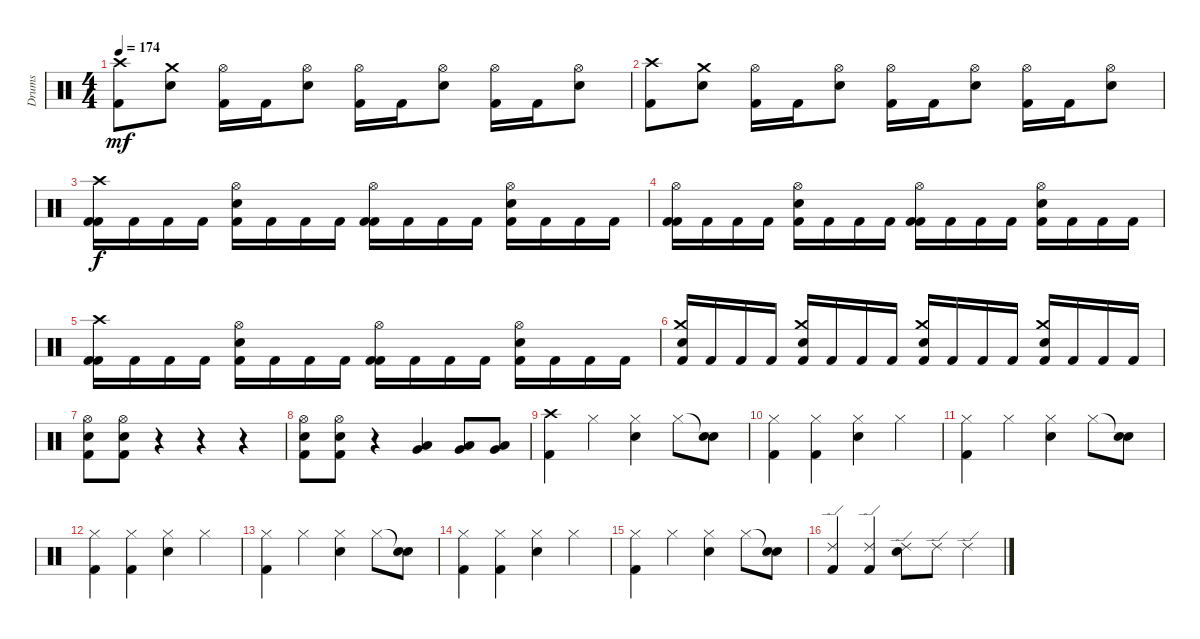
\track ("Drums" "Drums") {instrument percussion}
\staff {score}
\articulation defaults
\ts (4 4)
\tempo 174
\clef neutral
\ks c
("Crash high (hit)" "Kick (hit) 2").8{dy mf} ("Crash medium (hit)" "Electric Snare (hit)").8 ("Hi-Hat (open)" "Kick (hit) 2").16 "Kick (hit) 2".16 ("Hi-Hat (open)" "Electric Snare (hit)").8 ("Hi-Hat (open)" "Kick (hit) 2").16 "Kick (hit) 2".16 ("Hi-Hat (open)" "Electric Snare (hit)").8 ("Hi-Hat (open)" "Kick (hit) 2").16 "Kick (hit) 2".16 ("Hi-Hat (open)" "Electric Snare (hit)").8 |
("Crash high (hit)" "Kick (hit) 2").8 ("Crash medium (hit)" "Electric Snare (hit)").8 ("Hi-Hat (open)" "Kick (hit) 2").16 "Kick (hit) 2".16 ("Hi-Hat (open)" "Electric Snare (hit)").8 ("Hi-Hat (open)" "Kick (hit) 2").16 "Kick (hit) 2".16 ("Hi-Hat (open)" "Electric Snare (hit)").8 ("Hi-Hat (open)" "Kick (hit) 2").16 "Kick (hit) 2".16 ("Hi-Hat (open)" "Electric Snare (hit)").8 |
("Crash high (hit)" "Kick (hit) 2" "Kick (hit) 2").16{dy f} "Kick (hit) 2".16 "Kick (hit) 2".16 "Kick (hit) 2".16 ("Hi-Hat (open)" "Electric Snare (hit)" "Kick (hit) 2").16 "Kick (hit) 2".16 "Kick (hit) 2".16 "Kick (hit) 2".16 ("Hi-Hat (open)" "Kick (hit) 2" "Kick (hit) 2").16 "Kick (hit) 2".16 "Kick (hit) 2".16 "Kick (hit) 2".16 ("Hi-Hat (open)" "Electric Snare (hit)" "Kick (hit) 2").16 "Kick (hit) 2".16 "Kick (hit) 2".16 "Kick (hit) 2".16 |
("Hi-Hat (open)" "Kick (hit) 2" "Kick (hit) 2").16 "Kick (hit) 2".16 "Kick (hit) 2".16 "Kick (hit) 2".16 ("Hi-Hat (open)" "Electric Snare (hit)" "Kick (hit) 2").16 "Kick (hit) 2".16 "Kick (hit) 2".16 "Kick (hit) 2".16 ("Hi-Hat (open)" "Kick (hit) 2" "Kick (hit) 2").16 "Kick (hit) 2".16 "Kick (hit) 2".16 "Kick (hit) 2".16 ("Hi-Hat (open)" "Electric Snare (hit)" "Kick (hit) 2").16 "Kick (hit) 2".16 "Kick (hit) 2".16 "Kick (hit) 2".16 |
("Crash high (hit)" "Kick (hit) 2" "Kick (hit) 2").16 "Kick (hit) 2".16 "Kick (hit) 2".16 "Kick (hit) 2".16 ("Hi-Hat (open)" "Electric Snare (hit)" "Kick (hit) 2").16 "Kick (hit) 2".16 "Kick (hit) 2".16 "Kick (hit) 2".16 ("Hi-Hat (open)" "Kick (hit) 2" "Kick (hit) 2").16 "Kick (hit) 2".16 "Kick (hit) 2".16 "Kick (hit) 2".16 ("Hi-Hat (open)" "Electric Snare (hit)" "Kick (hit) 2").16 "Kick (hit) 2".16 "Kick (hit) 2".16 "Kick (hit) 2".16 |
("Crash medium (hit)" "Electric Snare (hit)" "Kick (hit) 2").16 "Kick (hit) 2".16 "Kick (hit) 2".16 "Kick (hit) 2".16 ("Crash medium (hit)" "Electric Snare (hit)" "Kick (hit) 2").16 "Kick (hit) 2".16 "Kick (hit) 2".16 "Kick (hit) 2".16 ("Crash medium (hit)" "Electric Snare (hit)" "Kick (hit) 2").16 "Kick (hit) 2".16 "Kick (hit) 2".16 "Kick (hit) 2".16 ("Crash medium (hit)" "Electric Snare (hit)" "Kick (hit) 2").16 "Kick (hit) 2".16 "Kick (hit) 2".16 "Kick (hit) 2".16 |
("Hi-Hat (open)" "Electric Snare (hit)" "Kick (hit) 2").8 ("Hi-Hat (open)" "Electric Snare (hit)" "Kick (hit) 2").8 r.4 r.4 r.4 |
("Hi-Hat (open)" "Electric Snare (hit)" "Kick (hit) 2").8 ("Hi-Hat (open)" "Electric Snare (hit)" "Kick (hit) 2").8 r.4 ("Low Tom (hit)" "Very Low Tom (hit)").4 ("Very Low Tom (hit)" "Low Floor Tom (hit)").8 ("Very Low Tom (hit)" "Low Floor Tom (hit)").8 |
("Crash high (hit)" "Kick (hit) 2").4 "Hi-Hat (closed)".4 ("Hi-Hat (closed)" "Electric Snare (hit)").4 "Hi-Hat (closed)".8 ("Snare (hit)"{t} "Electric Snare (hit)").8 |
("Hi-Hat (closed)" "Kick (hit) 2").4 ("Hi-Hat (closed)" "Kick (hit) 2").4 ("Hi-Hat (closed)" "Electric Snare (hit)").4 "Hi-Hat (closed)".4 |
("Hi-Hat (closed)" "Kick (hit) 2").4 "Hi-Hat (closed)".4 ("Hi-Hat (closed)" "Electric Snare (hit)").4 "Hi-Hat (closed)".8 ("Snare (hit)"{t} "Electric Snare (hit)").8 |
("Hi-Hat (closed)" "Kick (hit) 2").4 ("Hi-Hat (closed)" "Kick (hit) 2").4 ("Hi-Hat (closed)" "Electric Snare (hit)").4 "Hi-Hat (closed)".4 |
("Hi-Hat (closed)" "Kick (hit) 2").4 "Hi-Hat (closed)".4 ("Hi-Hat (closed)" "Electric Snare (hit)").4 "Hi-Hat (closed)".8 ("Snare (hit)"{t} "Electric Snare (hit)").8 |
("Hi-Hat (closed)" "Kick (hit) 2").4 ("Hi-Hat (closed)" "Kick (hit) 2").4 ("Hi-Hat (closed)" "Electric Snare (hit)").4 "Hi-Hat (closed)".4 |
("Hi-Hat (closed)" "Kick (hit) 2").4 "Hi-Hat (closed)".4 ("Hi-Hat (closed)" "Electric Snare (hit)").4 "Hi-Hat (closed)".8 ("Snare (hit)"{t} "Electric Snare (hit)").8 |
("Ride (edge) 2" "Kick (hit) 2").4 ("Ride (edge) 2" "Kick (hit) 2").4 ("Ride (edge) 2" "Electric Snare (hit)").8 "Ride (edge) 2".8 "Ride (edge) 2".4
